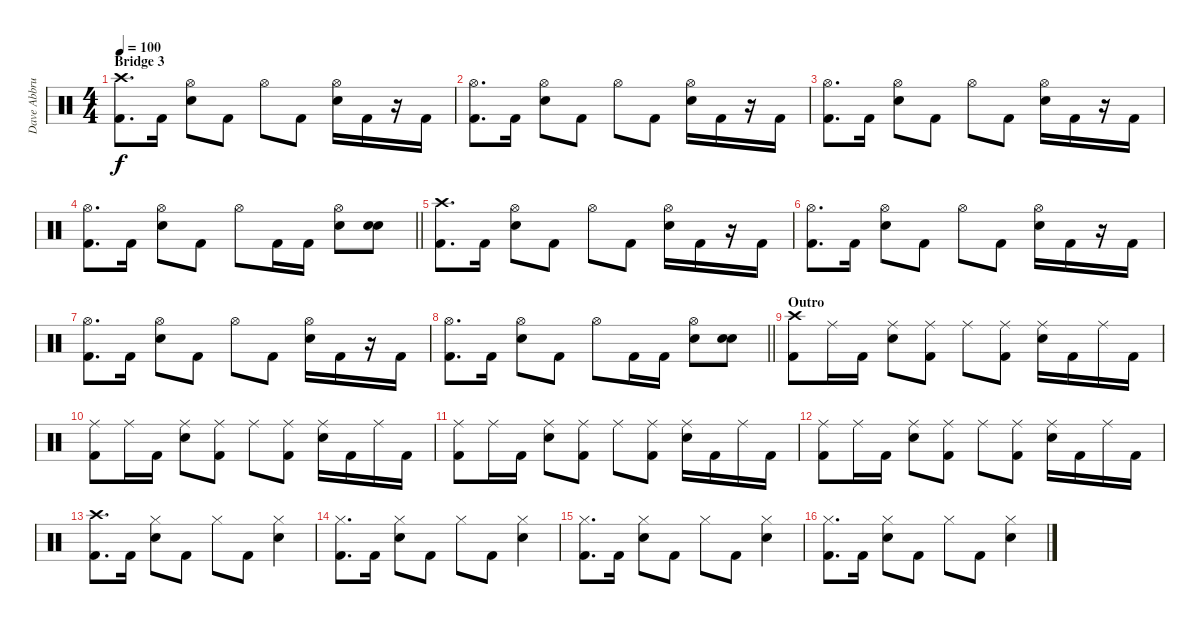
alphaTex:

\track ("Dave Abbruzzese" "Dave Abbru") {instrument percussion}
\staff {score}
\articulation defaults
\ts (4 4)
\section ("" "Bridge 3")
\tempo 100
\clef neutral
\ks c
("Crash high (hit)" "Kick (hit) 2").8{d dy f} "Kick (hit) 2".16 ("Hi-Hat (open)" "Electric Snare (hit)").8 "Kick (hit) 2".8 "Hi-Hat (open)".8 "Kick (hit) 2".8 ("Hi-Hat (open)" "Electric Snare (hit)").16 "Kick (hit) 2".16 r.16 "Kick (hit) 2".16 |
("Hi-Hat (open)" "Kick (hit) 2").8{d} "Kick (hit) 2".16 ("Hi-Hat (open)" "Electric Snare (hit)").8 "Kick (hit) 2".8 "Hi-Hat (open)".8 "Kick (hit) 2".8 ("Hi-Hat (open)" "Electric Snare (hit)").16 "Kick (hit) 2".16 r.16 "Kick (hit) 2".16 |
("Hi-Hat (open)" "Kick (hit) 2").8{d} "Kick (hit) 2".16 ("Hi-Hat (open)" "Electric Snare (hit)").8 "Kick (hit) 2".8 "Hi-Hat (open)".8 "Kick (hit) 2".8 ("Hi-Hat (open)" "Electric Snare (hit)").16 "Kick (hit) 2".16 r.16 "Kick (hit) 2".16 |
\barLineRight lightlight
("Hi-Hat (open)" "Kick (hit) 2").8{d} "Kick (hit) 2".16 ("Hi-Hat (open)" "Electric Snare (hit)").8 "Kick (hit) 2".8 "Hi-Hat (open)".8 "Kick (hit) 2".16 "Kick (hit) 2".16 ("Hi-Hat (open)" "Electric Snare (hit)").8 ("Electric Snare (hit)" "Electric Snare (hit)").8 |
("Crash high (hit)" "Kick (hit) 2").8{d} "Kick (hit) 2".16 ("Hi-Hat (open)" "Electric Snare (hit)").8 "Kick (hit) 2".8 "Hi-Hat (open)".8 "Kick (hit) 2".8 ("Hi-Hat (open)" "Electric Snare (hit)").16 "Kick (hit) 2".16 r.16 "Kick (hit) 2".16 |
("Hi-Hat (open)" "Kick (hit) 2").8{d} "Kick (hit) 2".16 ("Hi-Hat (open)" "Electric Snare (hit)").8 "Kick (hit) 2".8 "Hi-Hat (open)".8 "Kick (hit) 2".8 ("Hi-Hat (open)" "Electric Snare (hit)").16 "Kick (hit) 2".16 r.16 "Kick (hit) 2".16 |
("Hi-Hat (open)" "Kick (hit) 2").8{d} "Kick (hit) 2".16 ("Hi-Hat (open)" "Electric Snare (hit)").8 "Kick (hit) 2".8 "Hi-Hat (open)".8 "Kick (hit) 2".8 ("Hi-Hat (open)" "Electric Snare (hit)").16 "Kick (hit) 2".16 r.16 "Kick (hit) 2".16 |
\barLineRight lightlight
("Hi-Hat (open)" "Kick (hit) 2").8{d} "Kick (hit) 2".16 ("Hi-Hat (open)" "Electric Snare (hit)").8 "Kick (hit) 2".8 "Hi-Hat (open)".8 "Kick (hit) 2".16 "Kick (hit) 2".16 ("Hi-Hat (open)" "Electric Snare (hit)").8 ("Electric Snare (hit)" "Electric Snare (hit)").8 |
\section ("" "Outro")
("Crash high (hit)" "Kick (hit) 2").8 "Ride (middle)".16 "Kick (hit) 2".16 ("Ride (middle)" "Electric Snare (hit)").8 ("Ride (middle)" "Kick (hit) 2").8 "Ride (middle)".8 ("Ride (middle)" "Kick (hit) 2").8 ("Ride (middle)" "Electric Snare (hit)").16 "Kick (hit) 2".16 "Ride (middle)".16 "Kick (hit) 2".16 |
("Ride (middle)" "Kick (hit) 2").8 "Ride (middle)".16 "Kick (hit) 2".16 ("Ride (middle)" "Electric Snare (hit)").8 ("Ride (middle)" "Kick (hit) 2").8 "Ride (middle)".8 ("Ride (middle)" "Kick (hit) 2").8 ("Ride (middle)" "Electric Snare (hit)").16 "Kick (hit) 2".16 "Ride (middle)".16 "Kick (hit) 2".16 |
("Ride (middle)" "Kick (hit) 2").8 "Ride (middle)".16 "Kick (hit) 2".16 ("Ride (middle)" "Electric Snare (hit)").8 ("Ride (middle)" "Kick (hit) 2").8 "Ride (middle)".8 ("Ride (middle)" "Kick (hit) 2").8 ("Ride (middle)" "Electric Snare (hit)").16 "Kick (hit) 2".16 "Ride (middle)".16 "Kick (hit) 2".16 |
("Ride (middle)" "Kick (hit) 2").8 "Ride (middle)".16 "Kick (hit) 2".16 ("Ride (middle)" "Electric Snare (hit)").8 ("Ride (middle)" "Kick (hit) 2").8 "Ride (middle)".8 ("Ride (middle)" "Kick (hit) 2").8 ("Ride (middle)" "Electric Snare (hit)").16 "Kick (hit) 2".16 "Ride (middle)".16 "Kick (hit) 2".16 |
("Crash high (hit)" "Kick (hit) 2").8{d} "Kick (hit) 2".16 ("Hi-Hat (closed)" "Electric Snare (hit)").8 "Kick (hit) 2".8 "Hi-Hat (closed)".8 "Kick (hit) 2".8 ("Hi-Hat (closed)" "Electric Snare (hit)").4 |
("Hi-Hat (closed)" "Kick (hit) 2").8{d} "Kick (hit) 2".16 ("Hi-Hat (closed)" "Electric Snare (hit)").8 "Kick (hit) 2".8 "Hi-Hat (closed)".8 "Kick (hit) 2".8 ("Hi-Hat (closed)" "Electric Snare (hit)").4 |
("Hi-Hat (closed)" "Kick (hit) 2").8{d} "Kick (hit) 2".16 ("Hi-Hat (closed)" "Electric Snare (hit)").8 "Kick (hit) 2".8 "Hi-Hat (closed)".8 "Kick (hit) 2".8 ("Hi-Hat (closed)" "Electric Snare (hit)").4 |
("Hi-Hat (closed)" "Kick (hit) 2").8{d} "Kick (hit) 2".16 ("Hi-Hat (closed)" "Electric Snare (hit)").8 "Kick (hit) 2".8 "Hi-Hat (closed)".8 "Kick (hit) 2".8 ("Hi-Hat (closed)" "Electric Snare (hit)").4
